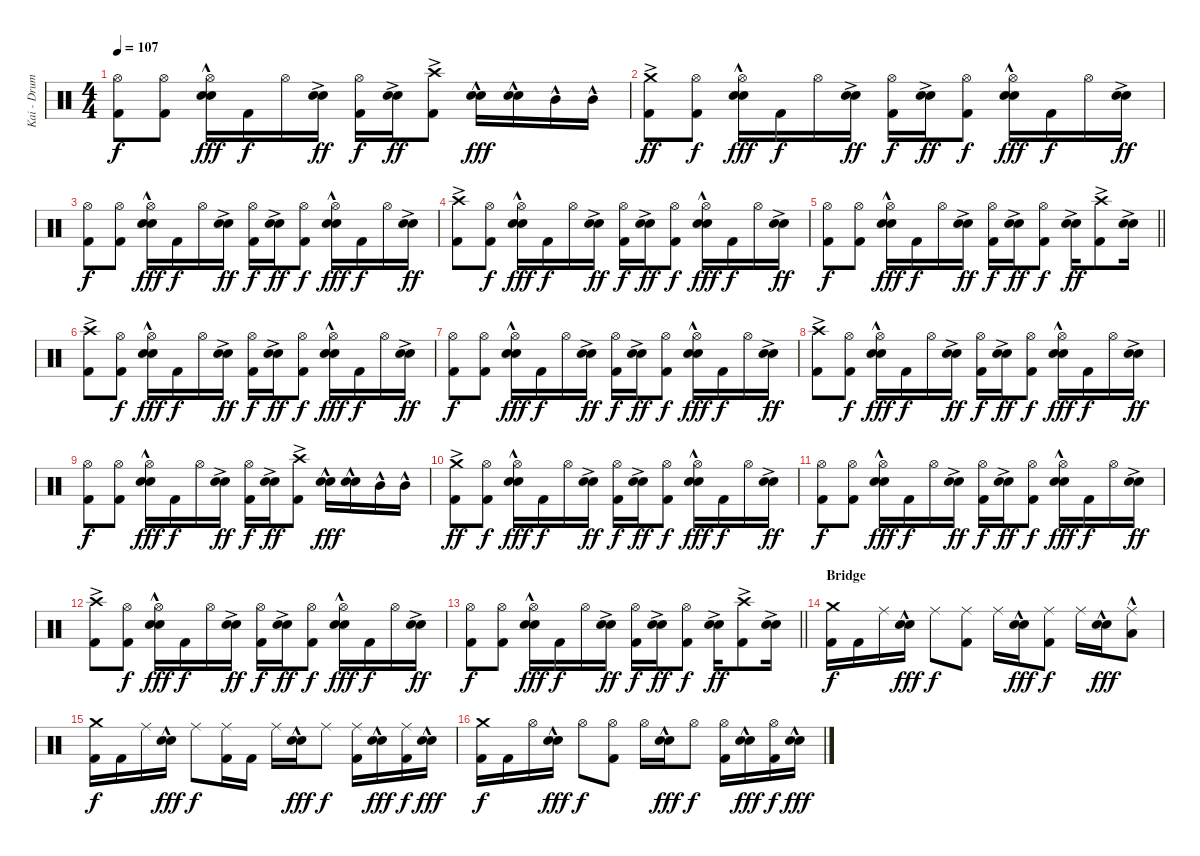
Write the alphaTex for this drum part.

\track ("Kai - Drums" "Kai - Drum") {instrument percussion}
\staff {score}
\articulation defaults
\ts (4 4)
\tempo 107
\clef neutral
\ks c
("Hi-Hat (open)" "Kick (hit) 2").8{dy f} ("Hi-Hat (open)" "Kick (hit) 2").8 ("Hi-Hat (open)" "Electric Snare (hit)"{hac} "Snare (hit) 2"{hac}).16{dy fff} "Kick (hit) 2".16{dy f} "Hi-Hat (open)".16 ("Electric Snare (hit)"{ac} "Snare (hit) 2"{ac}).16{dy ff} ("Hi-Hat (open)" "Kick (hit) 2").16{dy f} ("Electric Snare (hit)"{ac} "Snare (hit) 2"{ac}).16{dy ff} ("Crash high (hit)"{ac} "Kick (hit) 2").8 ("Electric Snare (hit)"{hac} "Snare (hit) 2").16{dy fff} ("Electric Snare (hit)"{hac} "Snare (hit) 2").16 "Mid Tom (hit)"{hac}.16 "Mid Tom (hit)"{hac}.16 |
("Crash medium (hit)"{ac} "Kick (hit) 2").8{dy ff} ("Hi-Hat (open)" "Kick (hit) 2").8{dy f} ("Hi-Hat (open)" "Electric Snare (hit)"{hac} "Snare (hit) 2"{hac}).16{dy fff} "Kick (hit) 2".16{dy f} "Hi-Hat (open)".16 ("Electric Snare (hit)"{ac} "Snare (hit) 2"{ac}).16{dy ff} ("Hi-Hat (open)" "Kick (hit) 2").16{dy f} ("Electric Snare (hit)"{ac} "Snare (hit) 2"{ac}).16{dy ff} ("Hi-Hat (open)" "Kick (hit) 2").8{dy f} ("Hi-Hat (open)" "Electric Snare (hit)"{hac} "Snare (hit) 2"{hac}).16{dy fff} "Kick (hit) 2".16{dy f} "Hi-Hat (open)".16 ("Electric Snare (hit)"{ac} "Snare (hit) 2"{ac}).16{dy ff} |
("Hi-Hat (open)" "Kick (hit) 2").8{dy f} ("Hi-Hat (open)" "Kick (hit) 2").8 ("Hi-Hat (open)" "Electric Snare (hit)"{hac} "Snare (hit) 2"{hac}).16{dy fff} "Kick (hit) 2".16{dy f} "Hi-Hat (open)".16 ("Electric Snare (hit)"{ac} "Snare (hit) 2"{ac}).16{dy ff} ("Hi-Hat (open)" "Kick (hit) 2").16{dy f} ("Electric Snare (hit)"{ac} "Snare (hit) 2"{ac}).16{dy ff} ("Hi-Hat (open)" "Kick (hit) 2").8{dy f} ("Hi-Hat (open)" "Electric Snare (hit)"{hac} "Snare (hit) 2"{hac}).16{dy fff} "Kick (hit) 2".16{dy f} "Hi-Hat (open)".16 ("Electric Snare (hit)"{ac} "Snare (hit) 2"{ac}).16{dy ff} |
("Crash high (hit)"{ac} "Kick (hit) 2").8 ("Hi-Hat (open)" "Kick (hit) 2").8{dy f} ("Hi-Hat (open)" "Electric Snare (hit)"{hac} "Snare (hit) 2"{hac}).16{dy fff} "Kick (hit) 2".16{dy f} "Hi-Hat (open)".16 ("Electric Snare (hit)"{ac} "Snare (hit) 2"{ac}).16{dy ff} ("Hi-Hat (open)" "Kick (hit) 2").16{dy f} ("Electric Snare (hit)"{ac} "Snare (hit) 2"{ac}).16{dy ff} ("Hi-Hat (open)" "Kick (hit) 2").8{dy f} ("Hi-Hat (open)" "Electric Snare (hit)"{hac} "Snare (hit) 2"{hac}).16{dy fff} "Kick (hit) 2".16{dy f} "Hi-Hat (open)".16 ("Electric Snare (hit)"{ac} "Snare (hit) 2"{ac}).16{dy ff} |
\barLineRight lightlight
("Hi-Hat (open)" "Kick (hit) 2").8{dy f} ("Hi-Hat (open)" "Kick (hit) 2").8 ("Hi-Hat (open)" "Electric Snare (hit)"{hac} "Snare (hit) 2"{hac}).16{dy fff} "Kick (hit) 2".16{dy f} "Hi-Hat (open)".16 ("Electric Snare (hit)"{ac} "Snare (hit) 2"{ac}).16{dy ff} ("Hi-Hat (open)" "Kick (hit) 2").16{dy f} ("Electric Snare (hit)"{ac} "Snare (hit) 2"{ac}).16{dy ff} ("Hi-Hat (open)" "Kick (hit) 2").8{dy f} ("Electric Snare (hit)"{ac} "Snare (hit) 2"{ac}).16{dy ff} ("Crash high (hit)"{ac} "Kick (hit) 2").8 ("Electric Snare (hit)"{ac} "Snare (hit) 2"{ac}).16 |
\section ("" "")
("Crash high (hit)"{ac} "Kick (hit) 2").8 ("Hi-Hat (open)" "Kick (hit) 2").8{dy f} ("Hi-Hat (open)" "Electric Snare (hit)"{hac} "Snare (hit) 2"{hac}).16{dy fff} "Kick (hit) 2".16{dy f} "Hi-Hat (open)".16 ("Electric Snare (hit)"{ac} "Snare (hit) 2"{ac}).16{dy ff} ("Hi-Hat (open)" "Kick (hit) 2").16{dy f} ("Electric Snare (hit)"{ac} "Snare (hit) 2"{ac}).16{dy ff} ("Hi-Hat (open)" "Kick (hit) 2").8{dy f} ("Hi-Hat (open)" "Electric Snare (hit)"{hac} "Snare (hit) 2"{hac}).16{dy fff} "Kick (hit) 2".16{dy f} "Hi-Hat (open)".16 ("Electric Snare (hit)"{ac} "Snare (hit) 2"{ac}).16{dy ff} |
("Hi-Hat (open)" "Kick (hit) 2").8{dy f} ("Hi-Hat (open)" "Kick (hit) 2").8 ("Hi-Hat (open)" "Electric Snare (hit)"{hac} "Snare (hit) 2"{hac}).16{dy fff} "Kick (hit) 2".16{dy f} "Hi-Hat (open)".16 ("Electric Snare (hit)"{ac} "Snare (hit) 2"{ac}).16{dy ff} ("Hi-Hat (open)" "Kick (hit) 2").16{dy f} ("Electric Snare (hit)"{ac} "Snare (hit) 2"{ac}).16{dy ff} ("Hi-Hat (open)" "Kick (hit) 2").8{dy f} ("Hi-Hat (open)" "Electric Snare (hit)"{hac} "Snare (hit) 2"{hac}).16{dy fff} "Kick (hit) 2".16{dy f} "Hi-Hat (open)".16 ("Electric Snare (hit)"{ac} "Snare (hit) 2"{ac}).16{dy ff} |
("Crash high (hit)"{ac} "Kick (hit) 2").8 ("Hi-Hat (open)" "Kick (hit) 2").8{dy f} ("Hi-Hat (open)" "Electric Snare (hit)"{hac} "Snare (hit) 2"{hac}).16{dy fff} "Kick (hit) 2".16{dy f} "Hi-Hat (open)".16 ("Electric Snare (hit)"{ac} "Snare (hit) 2"{ac}).16{dy ff} ("Hi-Hat (open)" "Kick (hit) 2").16{dy f} ("Electric Snare (hit)"{ac} "Snare (hit) 2"{ac}).16{dy ff} ("Hi-Hat (open)" "Kick (hit) 2").8{dy f} ("Hi-Hat (open)" "Electric Snare (hit)"{hac} "Snare (hit) 2"{hac}).16{dy fff} "Kick (hit) 2".16{dy f} "Hi-Hat (open)".16 ("Electric Snare (hit)"{ac} "Snare (hit) 2"{ac}).16{dy ff} |
("Hi-Hat (open)" "Kick (hit) 2").8{dy f} ("Hi-Hat (open)" "Kick (hit) 2").8 ("Hi-Hat (open)" "Electric Snare (hit)"{hac} "Snare (hit) 2"{hac}).16{dy fff} "Kick (hit) 2".16{dy f} "Hi-Hat (open)".16 ("Electric Snare (hit)"{ac} "Snare (hit) 2"{ac}).16{dy ff} ("Hi-Hat (open)" "Kick (hit) 2").16{dy f} ("Electric Snare (hit)"{ac} "Snare (hit) 2"{ac}).16{dy ff} ("Crash high (hit)"{ac} "Kick (hit) 2").8 ("Electric Snare (hit)"{hac} "Snare (hit) 2").16{dy fff} ("Electric Snare (hit)"{hac} "Snare (hit) 2").16 "Mid Tom (hit)"{hac}.16 "Mid Tom (hit)"{hac}.16 |
("Crash medium (hit)"{ac} "Kick (hit) 2").8{dy ff} ("Hi-Hat (open)" "Kick (hit) 2").8{dy f} ("Hi-Hat (open)" "Electric Snare (hit)"{hac} "Snare (hit) 2"{hac}).16{dy fff} "Kick (hit) 2".16{dy f} "Hi-Hat (open)".16 ("Electric Snare (hit)"{ac} "Snare (hit) 2"{ac}).16{dy ff} ("Hi-Hat (open)" "Kick (hit) 2").16{dy f} ("Electric Snare (hit)"{ac} "Snare (hit) 2"{ac}).16{dy ff} ("Hi-Hat (open)" "Kick (hit) 2").8{dy f} ("Hi-Hat (open)" "Electric Snare (hit)"{hac} "Snare (hit) 2"{hac}).16{dy fff} "Kick (hit) 2".16{dy f} "Hi-Hat (open)".16 ("Electric Snare (hit)"{ac} "Snare (hit) 2"{ac}).16{dy ff} |
("Hi-Hat (open)" "Kick (hit) 2").8{dy f} ("Hi-Hat (open)" "Kick (hit) 2").8 ("Hi-Hat (open)" "Electric Snare (hit)"{hac} "Snare (hit) 2"{hac}).16{dy fff} "Kick (hit) 2".16{dy f} "Hi-Hat (open)".16 ("Electric Snare (hit)"{ac} "Snare (hit) 2"{ac}).16{dy ff} ("Hi-Hat (open)" "Kick (hit) 2").16{dy f} ("Electric Snare (hit)"{ac} "Snare (hit) 2"{ac}).16{dy ff} ("Hi-Hat (open)" "Kick (hit) 2").8{dy f} ("Hi-Hat (open)" "Electric Snare (hit)"{hac} "Snare (hit) 2"{hac}).16{dy fff} "Kick (hit) 2".16{dy f} "Hi-Hat (open)".16 ("Electric Snare (hit)"{ac} "Snare (hit) 2"{ac}).16{dy ff} |
("Crash high (hit)"{ac} "Kick (hit) 2").8 ("Hi-Hat (open)" "Kick (hit) 2").8{dy f} ("Hi-Hat (open)" "Electric Snare (hit)"{hac} "Snare (hit) 2"{hac}).16{dy fff} "Kick (hit) 2".16{dy f} "Hi-Hat (open)".16 ("Electric Snare (hit)"{ac} "Snare (hit) 2"{ac}).16{dy ff} ("Hi-Hat (open)" "Kick (hit) 2").16{dy f} ("Electric Snare (hit)"{ac} "Snare (hit) 2"{ac}).16{dy ff} ("Hi-Hat (open)" "Kick (hit) 2").8{dy f} ("Hi-Hat (open)" "Electric Snare (hit)"{hac} "Snare (hit) 2"{hac}).16{dy fff} "Kick (hit) 2".16{dy f} "Hi-Hat (open)".16 ("Electric Snare (hit)"{ac} "Snare (hit) 2"{ac}).16{dy ff} |
\barLineRight lightlight
("Hi-Hat (open)" "Kick (hit) 2").8{dy f} ("Hi-Hat (open)" "Kick (hit) 2").8 ("Hi-Hat (open)" "Electric Snare (hit)"{hac} "Snare (hit) 2"{hac}).16{dy fff} "Kick (hit) 2".16{dy f} "Hi-Hat (open)".16 ("Electric Snare (hit)"{ac} "Snare (hit) 2"{ac}).16{dy ff} ("Hi-Hat (open)" "Kick (hit) 2").16{dy f} ("Electric Snare (hit)"{ac} "Snare (hit) 2"{ac}).16{dy ff} ("Hi-Hat (open)" "Kick (hit) 2").8{dy f} ("Electric Snare (hit)"{ac} "Snare (hit) 2"{ac}).16{dy ff} ("Crash high (hit)"{ac} "Kick (hit) 2").8 ("Electric Snare (hit)"{ac} "Snare (hit) 2"{ac}).16 |
\section ("" "Bridge")
("Crash medium (hit)" "Kick (hit) 2").16{dy f} "Kick (hit) 2".16 "Ride (middle)".16 ("Electric Snare (hit)"{hac} "Snare (hit) 2"{hac}).16{dy fff} "Ride (middle)".8{dy f} ("Ride (middle)" "Kick (hit) 2").8 "Ride (middle)".16 ("Electric Snare (hit)"{hac} "Snare (hit) 2"{hac}).16{dy fff} ("Ride (middle)" "Kick (hit) 2").8{dy f} "Ride (middle)".16 ("Electric Snare (hit)"{hac} "Snare (hit) 2"{hac}).16{dy fff} ("Ride (middle)" "Low Tom (hit)"{hac}).8 |
("Crash medium (hit)" "Kick (hit) 2").16{dy f} "Kick (hit) 2".16 "Ride (middle)".16 ("Electric Snare (hit)"{hac} "Snare (hit) 2"{hac}).16{dy fff} "Ride (middle)".8{dy f} ("Ride (middle)" "Kick (hit) 2").16 "Kick (hit) 2".16 "Ride (middle)".16 ("Electric Snare (hit)"{hac} "Snare (hit) 2"{hac}).16{dy fff} "Ride (middle)".8{dy f} ("Ride (middle)" "Kick (hit) 2").16 ("Electric Snare (hit)"{hac} "Snare (hit) 2"{hac}).16{dy fff} ("Ride (middle)" "Kick (hit) 2").16{dy f} ("Electric Snare (hit)"{hac} "Snare (hit) 2"{hac}).16{dy fff} |
("Crash medium (hit)" "Kick (hit) 2").16{dy f} "Kick (hit) 2".16 "Hi-Hat (open)".16 ("Electric Snare (hit)"{hac} "Snare (hit) 2"{hac}).16{dy fff} "Hi-Hat (open)".8{dy f} ("Hi-Hat (open)" "Kick (hit) 2").8 "Hi-Hat (open)".16 ("Electric Snare (hit)"{hac} "Snare (hit) 2"{hac}).16{dy fff} "Hi-Hat (open)".8{dy f} ("Hi-Hat (open)" "Kick (hit) 2").16 ("Electric Snare (hit)"{hac} "Snare (hit) 2"{hac}).16{dy fff} ("Hi-Hat (open)" "Kick (hit) 2").16{dy f} ("Electric Snare (hit)"{hac} "Snare (hit) 2"{hac}).16{dy fff}
